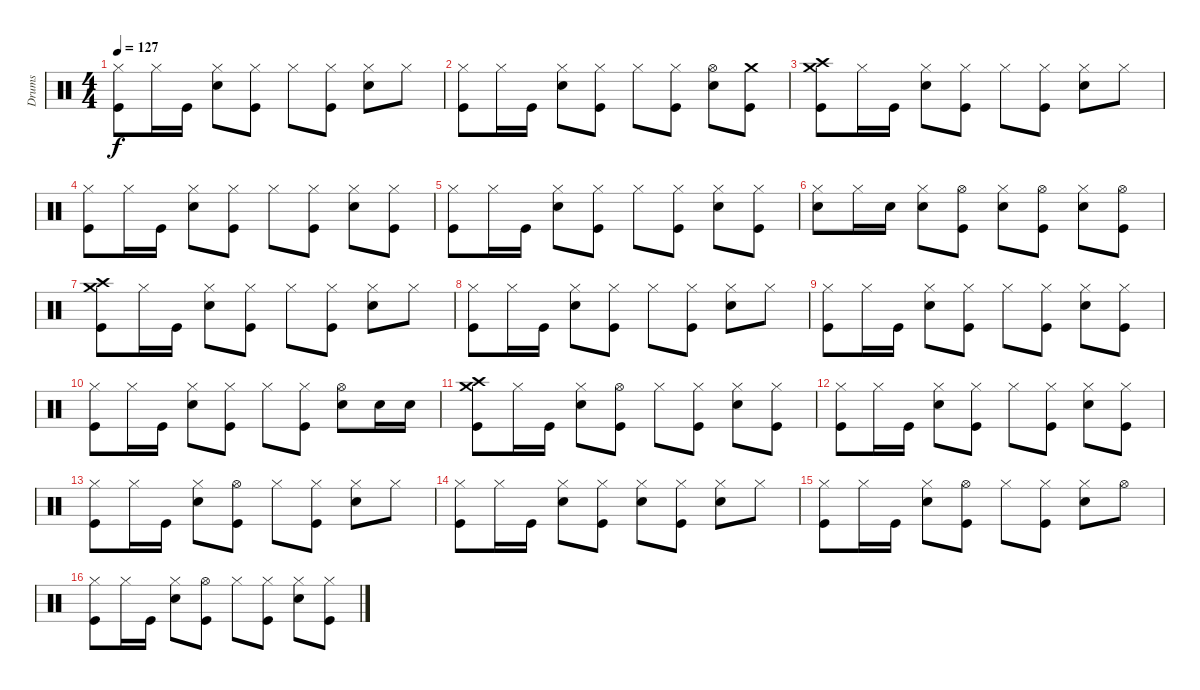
\track ("Drums" "Drums") {instrument percussion}
\staff {score}
\articulation defaults
\ts (4 4)
\tempo 127
\clef neutral
\ks c
("Hi-Hat (closed)" "Kick (hit)").8{dy f} "Hi-Hat (closed)".16 "Kick (hit)".16 ("Electric Snare (hit)" "Hi-Hat (closed)").8 ("Hi-Hat (closed)" "Kick (hit)").8 "Hi-Hat (closed)".8 ("Hi-Hat (closed)" "Kick (hit)").8 ("Electric Snare (hit)" "Hi-Hat (closed)").8 "Hi-Hat (closed)".8 |
("Hi-Hat (closed)" "Kick (hit)").8 "Hi-Hat (closed)".16 "Kick (hit)".16 ("Electric Snare (hit)" "Hi-Hat (closed)").8 ("Hi-Hat (closed)" "Kick (hit)").8 "Hi-Hat (closed)".8 ("Hi-Hat (closed)" "Kick (hit)").8 ("Electric Snare (hit)" "Hi-Hat (open)").8 ("Crash medium (hit)" "Kick (hit)").8 |
("Crash medium (hit)" "Crash high (hit)" "Kick (hit)").8 "Hi-Hat (closed)".16 "Kick (hit)".16 ("Electric Snare (hit)" "Hi-Hat (closed)").8 ("Hi-Hat (closed)" "Kick (hit)").8 "Hi-Hat (closed)".8 ("Hi-Hat (closed)" "Kick (hit)").8 ("Electric Snare (hit)" "Hi-Hat (closed)").8 "Hi-Hat (closed)".8 |
("Hi-Hat (closed)" "Kick (hit)").8 "Hi-Hat (closed)".16 "Kick (hit)".16 ("Electric Snare (hit)" "Hi-Hat (closed)").8 ("Hi-Hat (closed)" "Kick (hit)").8 "Hi-Hat (closed)".8 ("Hi-Hat (closed)" "Kick (hit)").8 ("Electric Snare (hit)" "Hi-Hat (closed)").8 ("Hi-Hat (closed)" "Kick (hit)").8 |
("Hi-Hat (closed)" "Kick (hit)").8 "Hi-Hat (closed)".16 "Kick (hit)".16 ("Electric Snare (hit)" "Hi-Hat (closed)").8 ("Hi-Hat (closed)" "Kick (hit)").8 "Hi-Hat (closed)".8 ("Hi-Hat (closed)" "Kick (hit)").8 ("Electric Snare (hit)" "Hi-Hat (closed)").8 ("Hi-Hat (closed)" "Kick (hit)").8 |
("Electric Snare (hit)" "Hi-Hat (closed)").8 "Hi-Hat (closed)".16 "Electric Snare (hit)".16 ("Electric Snare (hit)" "Hi-Hat (closed)").8 ("Hi-Hat (open)" "Kick (hit)").8 ("Electric Snare (hit)" "Hi-Hat (closed)").8 ("Hi-Hat (open)" "Kick (hit)").8 ("Electric Snare (hit)" "Hi-Hat (closed)").8 ("Hi-Hat (open)" "Kick (hit)").8 |
("Crash medium (hit)" "Crash high (hit)" "Kick (hit)").8 "Hi-Hat (closed)".16 "Kick (hit)".16 ("Electric Snare (hit)" "Hi-Hat (closed)").8 ("Hi-Hat (closed)" "Kick (hit)").8 "Hi-Hat (closed)".8 ("Hi-Hat (closed)" "Kick (hit)").8 ("Electric Snare (hit)" "Hi-Hat (closed)").8 "Hi-Hat (closed)".8 |
("Hi-Hat (closed)" "Kick (hit)").8 "Hi-Hat (closed)".16 "Kick (hit)".16 ("Electric Snare (hit)" "Hi-Hat (closed)").8 ("Hi-Hat (closed)" "Kick (hit)").8 "Hi-Hat (closed)".8 ("Hi-Hat (closed)" "Kick (hit)").8 ("Electric Snare (hit)" "Hi-Hat (closed)").8 "Hi-Hat (closed)".8 |
("Hi-Hat (closed)" "Kick (hit)").8{volume 14} "Hi-Hat (closed)".16 "Kick (hit)".16 ("Electric Snare (hit)" "Hi-Hat (closed)").8 ("Hi-Hat (closed)" "Kick (hit)").8 "Hi-Hat (closed)".8 ("Hi-Hat (closed)" "Kick (hit)").8 ("Electric Snare (hit)" "Hi-Hat (closed)").8 ("Hi-Hat (closed)" "Kick (hit)").8 |
("Hi-Hat (closed)" "Kick (hit)").8{volume 12} "Hi-Hat (closed)".16 "Kick (hit)".16 ("Electric Snare (hit)" "Hi-Hat (closed)").8 ("Hi-Hat (closed)" "Kick (hit)").8 "Hi-Hat (closed)".8 ("Hi-Hat (closed)" "Kick (hit)").8 ("Electric Snare (hit)" "Hi-Hat (open)").8 "Electric Snare (hit)".16 "Electric Snare (hit)".16 |
("Crash medium (hit)" "Crash high (hit)" "Kick (hit)").8{volume 10} "Hi-Hat (closed)".16 "Kick (hit)".16 ("Electric Snare (hit)" "Hi-Hat (closed)").8 ("Hi-Hat (open)" "Kick (hit)").8 "Hi-Hat (closed)".8 ("Hi-Hat (closed)" "Kick (hit)").8 ("Electric Snare (hit)" "Hi-Hat (closed)").8 ("Hi-Hat (closed)" "Kick (hit)").8 |
("Hi-Hat (closed)" "Kick (hit)").8{volume 9} "Hi-Hat (closed)".16 "Kick (hit)".16 ("Electric Snare (hit)" "Hi-Hat (closed)").8 ("Hi-Hat (closed)" "Kick (hit)").8 "Hi-Hat (closed)".8 ("Hi-Hat (closed)" "Kick (hit)").8 ("Electric Snare (hit)" "Hi-Hat (closed)").8 ("Hi-Hat (closed)" "Kick (hit)").8 |
("Hi-Hat (closed)" "Kick (hit)").8{volume 7} "Hi-Hat (closed)".16 "Kick (hit)".16 ("Electric Snare (hit)" "Hi-Hat (closed)").8 ("Hi-Hat (open)" "Kick (hit)").8 "Hi-Hat (closed)".8 ("Hi-Hat (closed)" "Kick (hit)").8 ("Electric Snare (hit)" "Hi-Hat (closed)").8 "Hi-Hat (closed)".8 |
("Hi-Hat (closed)" "Kick (hit)").8{volume 5} "Hi-Hat (closed)".16 "Kick (hit)".16 ("Electric Snare (hit)" "Hi-Hat (closed)").8 ("Hi-Hat (closed)" "Kick (hit)").8 ("Electric Snare (hit)" "Hi-Hat (closed)").8 ("Hi-Hat (closed)" "Kick (hit)").8 ("Electric Snare (hit)" "Hi-Hat (closed)").8 "Hi-Hat (closed)".8 |
("Hi-Hat (closed)" "Kick (hit)").8{volume 4} "Hi-Hat (closed)".16 "Kick (hit)".16 ("Electric Snare (hit)" "Hi-Hat (closed)").8 ("Hi-Hat (open)" "Kick (hit)").8 "Hi-Hat (closed)".8 ("Hi-Hat (closed)" "Kick (hit)").8 ("Electric Snare (hit)" "Hi-Hat (closed)").8 "Hi-Hat (open)".8 |
("Hi-Hat (closed)" "Kick (hit)").8{volume 2} "Hi-Hat (closed)".16 "Kick (hit)".16 ("Electric Snare (hit)" "Hi-Hat (closed)").8 ("Hi-Hat (open)" "Kick (hit)").8 "Hi-Hat (closed)".8 ("Hi-Hat (closed)" "Kick (hit)").8 ("Electric Snare (hit)" "Hi-Hat (closed)").8 ("Hi-Hat (closed)" "Kick (hit)").8
